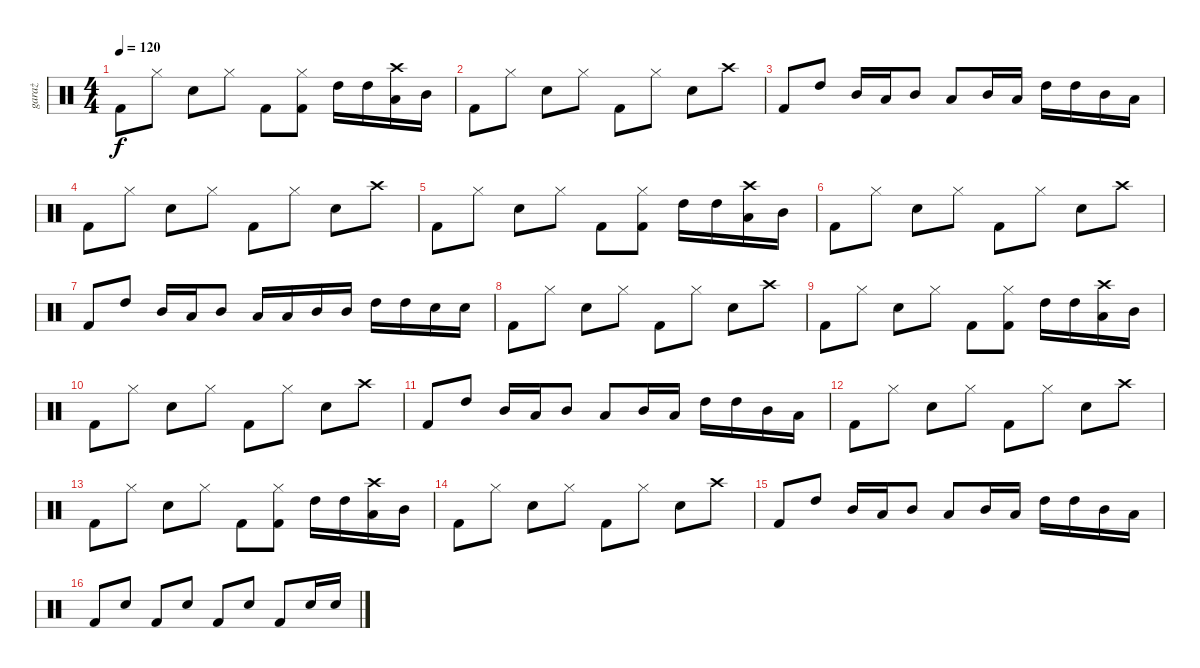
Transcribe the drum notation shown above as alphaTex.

\track ("garaż" "garaż") {instrument percussion}
\staff {score}
\articulation defaults
\ts (4 4)
\tempo 120
\clef neutral
\ks c "Kick (hit) 2".8{dy f} "Hi-Hat (closed)".8 "Snare (hit) 2".8 "Hi-Hat (closed)".8 "Kick (hit) 2".8
("Hi-Hat (closed)" "Kick (hit) 2").8 "High Tom (hit)".16 "High Tom (hit)".16 ("Crash high (hit)" "Low Tom (hit)").16 "Mid Tom (hit)".16 |
"Kick (hit) 2".8 "Hi-Hat (closed)".8 "Snare (hit) 2".8 "Hi-Hat (closed)".8 "Kick (hit) 2".8 "Hi-Hat (closed)".8 "Snare (hit) 2".8 "Crash high (hit)".8 |
"Kick (hit) 2".8 "High Tom (hit)".8 "Mid Tom (hit)".16 "Low Tom (hit)".16 "Mid Tom (hit)".8 "Low Tom (hit)".8 "Mid Tom (hit)".16 "Low Tom (hit)".16 "High Tom (hit)".16 "High Tom (hit)".16 "Mid Tom (hit)".16 "Low Tom (hit)".16 |
"Kick (hit) 2".8 "Hi-Hat (closed)".8 "Snare (hit) 2".8 "Hi-Hat (closed)".8 "Kick (hit) 2".8 "Hi-Hat (closed)".8 "Snare (hit) 2".8 "Crash high (hit)".8 |
"Kick (hit) 2".8 "Hi-Hat (closed)".8 "Snare (hit) 2".8 "Hi-Hat (closed)".8 "Kick (hit) 2".8 ("Hi-Hat (closed)" "Kick (hit) 2").8 "High Tom (hit)".16 "High Tom (hit)".16 ("Crash high (hit)" "Low Tom (hit)").16 "Mid Tom (hit)".16 |
"Kick (hit) 2".8 "Hi-Hat (closed)".8 "Snare (hit) 2".8 "Hi-Hat (closed)".8 "Kick (hit) 2".8 "Hi-Hat (closed)".8 "Snare (hit) 2".8 "Crash high (hit)".8 |
"Kick (hit) 2".8 "High Tom (hit)".8 "Mid Tom (hit)".16 "Low Tom (hit)".16 "Mid Tom (hit)".8 "Low Tom (hit)".16 "Low Tom (hit)".16 "Mid Tom (hit)".16 "Mid Tom (hit)".16 "High Tom (hit)".16 "High Tom (hit)".16 "Snare (hit) 2".16 "Snare (hit) 2".16 |
"Kick (hit) 2".8 "Hi-Hat (closed)".8 "Snare (hit) 2".8 "Hi-Hat (closed)".8 "Kick (hit) 2".8 "Hi-Hat (closed)".8 "Snare (hit) 2".8 "Crash high (hit)".8 |
"Kick (hit) 2".8 "Hi-Hat (closed)".8 "Snare (hit) 2".8 "Hi-Hat (closed)".8 "Kick (hit) 2".8 ("Hi-Hat (closed)" "Kick (hit) 2").8 "High Tom (hit)".16 "High Tom (hit)".16 ("Crash high (hit)" "Low Tom (hit)").16 "Mid Tom (hit)".16 |
"Kick (hit) 2".8 "Hi-Hat (closed)".8 "Snare (hit) 2".8 "Hi-Hat (closed)".8 "Kick (hit) 2".8 "Hi-Hat (closed)".8 "Snare (hit) 2".8 "Crash high (hit)".8 |
"Kick (hit) 2".8 "High Tom (hit)".8 "Mid Tom (hit)".16 "Low Tom (hit)".16 "Mid Tom (hit)".8 "Low Tom (hit)".8 "Mid Tom (hit)".16 "Low Tom (hit)".16 "High Tom (hit)".16 "High Tom (hit)".16 "Mid Tom (hit)".16 "Low Tom (hit)".16 |
"Kick (hit) 2".8 "Hi-Hat (closed)".8 "Snare (hit) 2".8 "Hi-Hat (closed)".8 "Kick (hit) 2".8 "Hi-Hat (closed)".8 "Snare (hit) 2".8 "Crash high (hit)".8 |
"Kick (hit) 2".8 "Hi-Hat (closed)".8 "Snare (hit) 2".8 "Hi-Hat (closed)".8 "Kick (hit) 2".8 ("Hi-Hat (closed)" "Kick (hit) 2").8 "High Tom (hit)".16 "High Tom (hit)".16 ("Crash high (hit)" "Low Tom (hit)").16 "Mid Tom (hit)".16 |
"Kick (hit) 2".8 "Hi-Hat (closed)".8 "Snare (hit) 2".8 "Hi-Hat (closed)".8 "Kick (hit) 2".8 "Hi-Hat (closed)".8 "Snare (hit) 2".8 "Crash high (hit)".8 |
"Kick (hit) 2".8 "High Tom (hit)".8 "Mid Tom (hit)".16 "Low Tom (hit)".16 "Mid Tom (hit)".8 "Low Tom (hit)".8 "Mid Tom (hit)".16 "Low Tom (hit)".16 "High Tom (hit)".16 "High Tom (hit)".16 "Mid Tom (hit)".16 "Low Tom (hit)".16 |
"Kick (hit) 2".8 "Snare (hit) 2".8 "Kick (hit) 2".8 "Snare (hit) 2".8 "Kick (hit) 2".8 "Snare (hit) 2".8 "Kick (hit) 2".8 "Snare (hit) 2".16 "Snare (hit) 2".16
